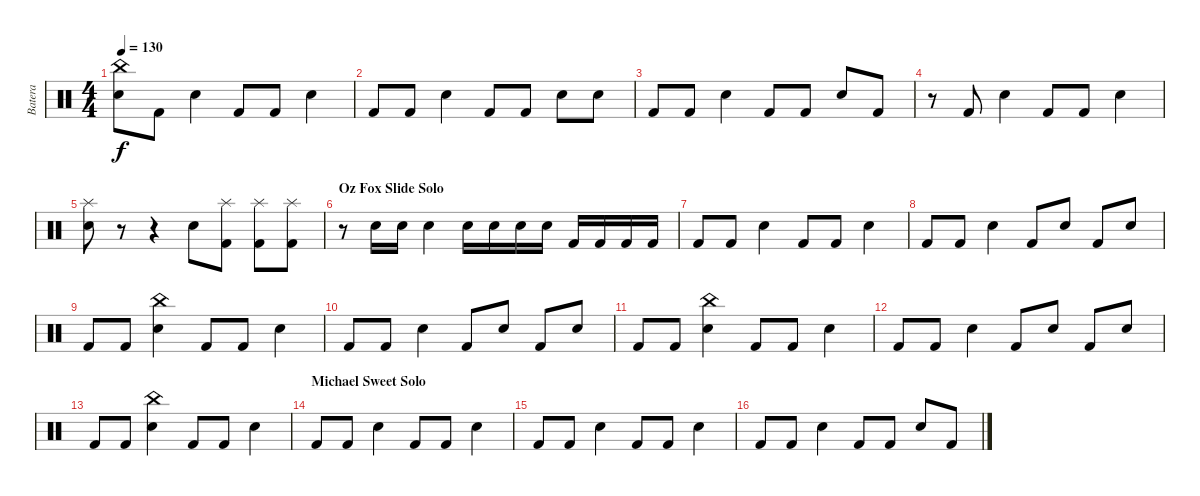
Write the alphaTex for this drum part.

\track ("Batera" "Batera") {instrument percussion}
\staff {score}
\articulation defaults
\ts (4 4)
\tempo 130
\clef neutral
\ks c
("Snare (hit) 2" "China (hit)").8{dy f} "Kick (hit) 2".8 "Snare (hit) 2".4 "Kick (hit) 2".8 "Kick (hit) 2".8 "Snare (hit) 2".4 |
"Kick (hit) 2".8 "Kick (hit) 2".8 "Snare (hit) 2".4 "Kick (hit) 2".8 "Kick (hit) 2".8 "Snare (hit) 2".8 "Snare (hit) 2".8 |
"Kick (hit) 2".8 "Kick (hit) 2".8 "Snare (hit) 2".4 "Kick (hit) 2".8 "Kick (hit) 2".8 "Snare (hit) 2".8 "Kick (hit) 2".8 |
r.8 "Kick (hit) 2".8 "Snare (hit) 2".4 "Kick (hit) 2".8 "Kick (hit) 2".8 "Snare (hit) 2".4 |
("Snare (hit) 2" "Splash (hit)").8 r.8 r.4 "Snare (hit) 2".8 ("Kick (hit) 2" "Splash (hit)").8 ("Kick (hit) 2" "Splash (hit)").8 ("Kick (hit) 2" "Splash (hit)").8 |
\section ("" "Oz Fox Slide Solo")
r.8 "Snare (hit) 2".16 "Snare (hit) 2".16 "Snare (hit) 2".4 "Snare (hit) 2".16 "Snare (hit) 2".16 "Snare (hit) 2".16 "Snare (hit) 2".16 "Kick (hit) 2".16 "Kick (hit) 2".16 "Kick (hit) 2".16 "Kick (hit) 2".16 |
"Kick (hit) 2".8 "Kick (hit) 2".8 "Snare (hit) 2".4 "Kick (hit) 2".8 "Kick (hit) 2".8 "Snare (hit) 2".4 |
"Kick (hit) 2".8 "Kick (hit) 2".8 "Snare (hit) 2".4 "Kick (hit) 2".8 "Snare (hit) 2".8 "Kick (hit) 2".8 "Snare (hit) 2".8 |
"Kick (hit) 2".8 "Kick (hit) 2".8 ("Snare (hit) 2" "China (hit)").4 "Kick (hit) 2".8 "Kick (hit) 2".8 "Snare (hit) 2".4 |
"Kick (hit) 2".8 "Kick (hit) 2".8 "Snare (hit) 2".4 "Kick (hit) 2".8 "Snare (hit) 2".8 "Kick (hit) 2".8 "Snare (hit) 2".8 |
"Kick (hit) 2".8 "Kick (hit) 2".8 ("Snare (hit) 2" "China (hit)").4 "Kick (hit) 2".8 "Kick (hit) 2".8 "Snare (hit) 2".4 |
"Kick (hit) 2".8 "Kick (hit) 2".8 "Snare (hit) 2".4 "Kick (hit) 2".8 "Snare (hit) 2".8 "Kick (hit) 2".8 "Snare (hit) 2".8 |
"Kick (hit) 2".8 "Kick (hit) 2".8 ("Snare (hit) 2" "China (hit)").4 "Kick (hit) 2".8 "Kick (hit) 2".8 "Snare (hit) 2".4 |
\section ("" "Michael Sweet Solo")
"Kick (hit) 2".8 "Kick (hit) 2".8 "Snare (hit) 2".4 "Kick (hit) 2".8 "Kick (hit) 2".8 "Snare (hit) 2".4 |
"Kick (hit) 2".8 "Kick (hit) 2".8 "Snare (hit) 2".4 "Kick (hit) 2".8 "Kick (hit) 2".8 "Snare (hit) 2".4 |
"Kick (hit) 2".8 "Kick (hit) 2".8 "Snare (hit) 2".4 "Kick (hit) 2".8 "Kick (hit) 2".8 "Snare (hit) 2".8 "Kick (hit) 2".8
